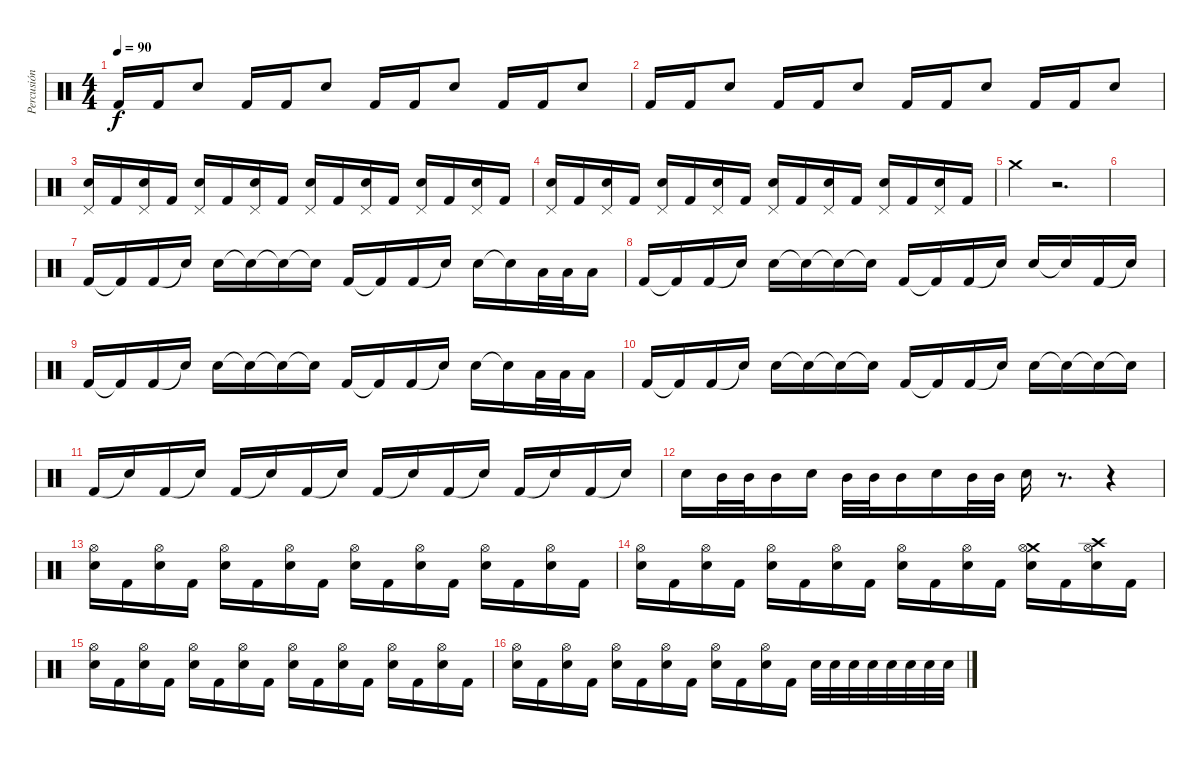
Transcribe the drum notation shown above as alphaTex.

\track ("Percusión" "Percusión") {instrument percussion}
\staff {score}
\articulation defaults
\ts (4 4)
\tempo 90
\clef neutral
\ks c "Kick (hit) 2".16{dy f} "Kick (hit) 2".16 "Snare (hit) 2".8 "Kick (hit) 2".16 "Kick (hit) 2".16 "Snare (hit) 2".8 "Kick (hit) 2".16 "Kick (hit) 2".16 "Snare (hit) 2".8 "Kick (hit) 2".16 "Kick (hit) 2".16 "Snare (hit) 2".8
|
"Kick (hit) 2".16 "Kick (hit) 2".16 "Snare (hit) 2".8 "Kick (hit) 2".16 "Kick (hit) 2".16 "Snare (hit) 2".8 "Kick (hit) 2".16 "Kick (hit) 2".16 "Snare (hit) 2".8 "Kick (hit) 2".16 "Kick (hit) 2".16 "Snare (hit) 2".8 |
("Pedal Hi-Hat (hit)" "Snare (hit) 2").16 "Kick (hit) 2".16 ("Pedal Hi-Hat (hit)" "Snare (hit) 2").16 "Kick (hit) 2".16 ("Pedal Hi-Hat (hit)" "Snare (hit) 2").16 "Kick (hit) 2".16 ("Pedal Hi-Hat (hit)" "Snare (hit) 2").16 "Kick (hit) 2".16 ("Pedal Hi-Hat (hit)" "Snare (hit) 2").16 "Kick (hit) 2".16 ("Pedal Hi-Hat (hit)" "Snare (hit) 2").16 "Kick (hit) 2".16 ("Pedal Hi-Hat (hit)" "Snare (hit) 2").16 "Kick (hit) 2".16 ("Pedal Hi-Hat (hit)" "Snare (hit) 2").16 "Kick (hit) 2".16 |
("Pedal Hi-Hat (hit)" "Snare (hit) 2").16 "Kick (hit) 2".16 ("Pedal Hi-Hat (hit)" "Snare (hit) 2").16 "Kick (hit) 2".16 ("Pedal Hi-Hat (hit)" "Snare (hit) 2").16 "Kick (hit) 2".16 ("Pedal Hi-Hat (hit)" "Snare (hit) 2").16 "Kick (hit) 2".16 ("Pedal Hi-Hat (hit)" "Snare (hit) 2").16 "Kick (hit) 2".16 ("Pedal Hi-Hat (hit)" "Snare (hit) 2").16 "Kick (hit) 2".16 ("Pedal Hi-Hat (hit)" "Snare (hit) 2").16 "Kick (hit) 2".16 ("Pedal Hi-Hat (hit)" "Snare (hit) 2").16 "Kick (hit) 2".16 |
"Crash medium (hit)".4 r.2{d} |
|
"Kick (hit) 2".16 "Kick (hit) 2"{t}.16 "Kick (hit) 2".16 "Snare (hit)"{t}.16 "Snare (hit) 2".16 "Snare (hit) 2"{t}.16 "Snare (hit) 2"{t}.16 "Snare (hit) 2"{t}.16 "Kick (hit) 2".16 "Kick (hit) 2"{t}.16 "Kick (hit) 2".16 "Snare (hit)"{t}.16 "Snare (hit) 2".16 "Snare (hit)"{t}.16 "Low Tom (hit)".32 "Low Tom (hit)".32 "Low Tom (hit)".16 |
"Kick (hit) 2".16 "Kick (hit) 2"{t}.16 "Kick (hit) 2".16 "Snare (hit)"{t}.16 "Snare (hit) 2".16 "Snare (hit) 2"{t}.16 "Snare (hit) 2"{t}.16 "Snare (hit) 2"{t}.16 "Kick (hit) 2".16 "Kick (hit) 2"{t}.16 "Kick (hit) 2".16 "Snare (hit)"{t}.16 "Snare (hit) 2".16 "Snare (hit)"{t}.16 "Kick (hit) 2".16 "Snare (hit)"{t}.16 |
"Kick (hit) 2".16 "Kick (hit) 2"{t}.16 "Kick (hit) 2".16 "Snare (hit)"{t}.16 "Snare (hit) 2".16 "Snare (hit) 2"{t}.16 "Snare (hit) 2"{t}.16 "Snare (hit) 2"{t}.16 "Kick (hit) 2".16 "Kick (hit) 2"{t}.16 "Kick (hit) 2".16 "Snare (hit)"{t}.16 "Snare (hit) 2".16 "Snare (hit)"{t}.16 "Low Tom (hit)".32 "Low Tom (hit)".32 "Low Tom (hit)".16 |
"Kick (hit) 2".16 "Kick (hit) 2"{t}.16 "Kick (hit) 2".16 "Snare (hit)"{t}.16 "Snare (hit) 2".16 "Snare (hit) 2"{t}.16 "Snare (hit) 2"{t}.16 "Snare (hit) 2"{t}.16 "Kick (hit) 2".16 "Kick (hit) 2"{t}.16 "Kick (hit) 2".16 "Snare (hit)"{t}.16 "Snare (hit) 2".16 "Snare (hit)"{t}.16 "Snare (hit)"{t}.16 "Snare (hit)"{t}.16 |
"Kick (hit) 2".16 "Snare (hit)"{t}.16 "Kick (hit) 2".16 "Snare (hit)"{t}.16 "Kick (hit) 2".16 "Snare (hit)"{t}.16 "Kick (hit) 2".16 "Snare (hit)"{t}.16 "Kick (hit) 2".16 "Snare (hit)"{t}.16 "Kick (hit) 2".16 "Snare (hit)"{t}.16 "Kick (hit) 2".16 "Snare (hit)"{t}.16 "Kick (hit) 2".16 "Snare (hit)"{t}.16 |
"Snare (hit) 2".16 "Mid Tom (hit)".32 "Mid Tom (hit)".32 "Mid Tom (hit)".16 "Snare (hit) 2".16 "Mid Tom (hit)".32 "Mid Tom (hit)".32 "Mid Tom (hit)".16 "Snare (hit) 2".16 "Mid Tom (hit)".32 "Mid Tom (hit)".32 "Snare (hit) 2".16 r.8{d} r.4 |
("Hi-Hat (open)" "Snare (hit) 2").16 "Kick (hit) 2".16 ("Hi-Hat (open)" "Snare (hit) 2").16 "Kick (hit) 2".16 ("Hi-Hat (open)" "Snare (hit) 2").16 "Kick (hit) 2".16 ("Hi-Hat (open)" "Snare (hit) 2").16 "Kick (hit) 2".16 ("Hi-Hat (open)" "Snare (hit) 2").16 "Kick (hit) 2".16 ("Hi-Hat (open)" "Snare (hit) 2").16 "Kick (hit) 2".16 ("Hi-Hat (open)" "Snare (hit) 2").16 "Kick (hit) 2".16 ("Hi-Hat (open)" "Snare (hit) 2").16 "Kick (hit) 2".16 |
("Hi-Hat (open)" "Snare (hit) 2").16 "Kick (hit) 2".16 ("Hi-Hat (open)" "Snare (hit) 2").16 "Kick (hit) 2".16 ("Hi-Hat (open)" "Snare (hit) 2").16 "Kick (hit) 2".16 ("Hi-Hat (open)" "Snare (hit) 2").16 "Kick (hit) 2".16 ("Hi-Hat (open)" "Snare (hit) 2").16 "Kick (hit) 2".16 ("Hi-Hat (open)" "Snare (hit) 2").16 "Kick (hit) 2".16 ("Crash medium (hit)" "Hi-Hat (open)" "Snare (hit) 2").16 "Kick (hit) 2".16 ("Crash high (hit)" "Hi-Hat (open)" "Snare (hit) 2").16 "Kick (hit) 2".16 |
("Hi-Hat (open)" "Snare (hit) 2").16 "Kick (hit) 2".16 ("Hi-Hat (open)" "Snare (hit) 2").16 "Kick (hit) 2".16 ("Hi-Hat (open)" "Snare (hit) 2").16 "Kick (hit) 2".16 ("Hi-Hat (open)" "Snare (hit) 2").16 "Kick (hit) 2".16 ("Hi-Hat (open)" "Snare (hit) 2").16 "Kick (hit) 2".16 ("Hi-Hat (open)" "Snare (hit) 2").16 "Kick (hit) 2".16 ("Hi-Hat (open)" "Snare (hit) 2").16 "Kick (hit) 2".16 ("Hi-Hat (open)" "Snare (hit) 2").16 "Kick (hit) 2".16 |
("Hi-Hat (open)" "Snare (hit) 2").16 "Kick (hit) 2".16 ("Hi-Hat (open)" "Snare (hit) 2").16 "Kick (hit) 2".16 ("Hi-Hat (open)" "Snare (hit) 2").16 "Kick (hit) 2".16 ("Hi-Hat (open)" "Snare (hit) 2").16 "Kick (hit) 2".16 ("Hi-Hat (open)" "Snare (hit) 2").16 "Kick (hit) 2".16 ("Hi-Hat (open)" "Snare (hit) 2").16 "Kick (hit) 2".16 "Snare (hit) 2".32 "Snare (hit) 2".32 "Snare (hit) 2".32 "Snare (hit) 2".32 "Snare (hit) 2".32 "Snare (hit) 2".32 "Snare (hit) 2".32 "Snare (hit) 2".32
